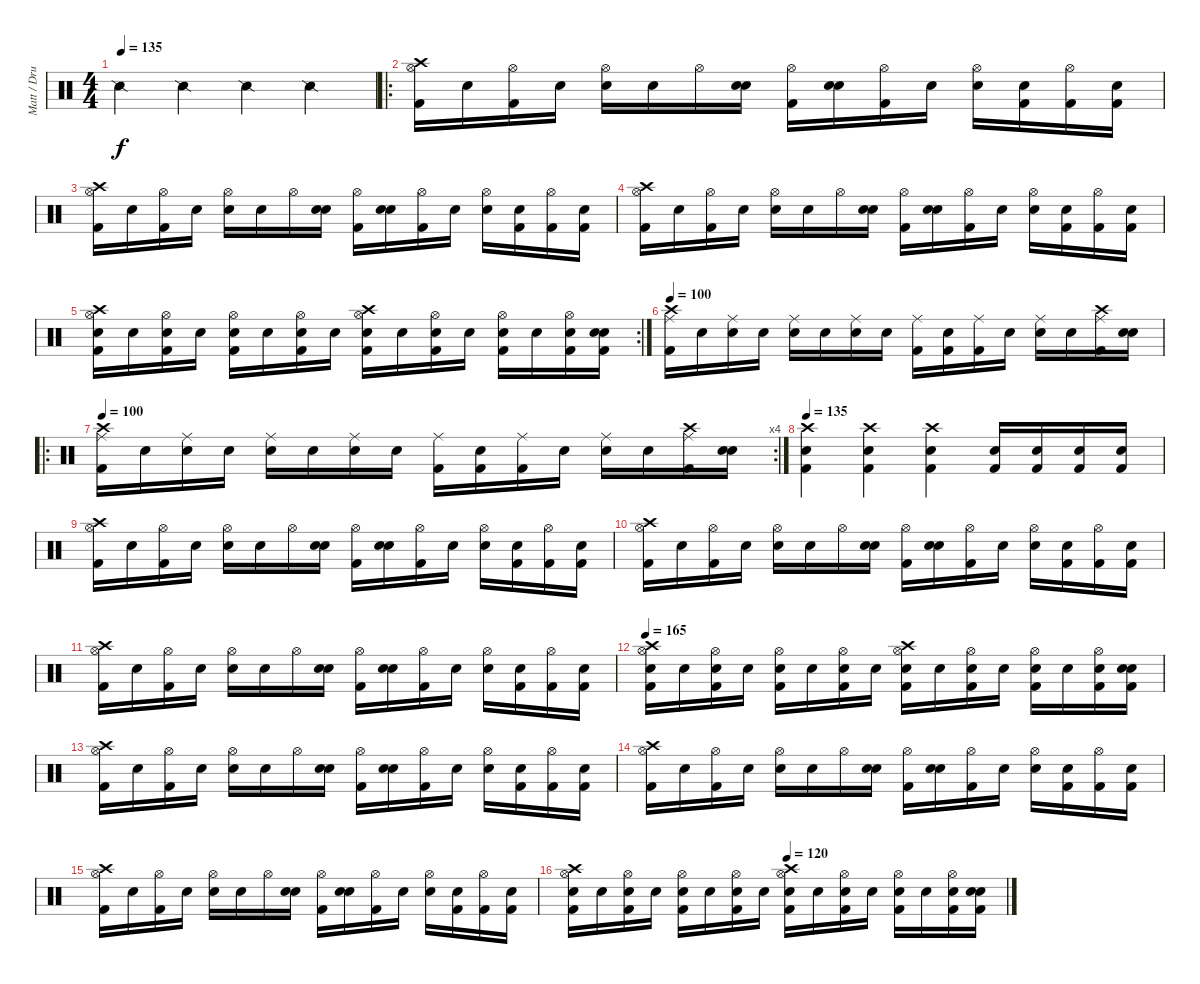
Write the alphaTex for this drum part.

\track ("Matt / Drums" "Matt / Dru") {instrument percussion}
\staff {score}
\articulation defaults
\ts (4 4)
\tempo 135
\clef neutral
\ks c "Snare (side stick) 2".4{dy f} "Snare (side stick) 2".4 "Snare (side stick) 2".4 "Snare (side stick) 2".4
|
\ro
("Crash high (hit)" "Hi-Hat (open)" "Kick (hit) 2").16 "Snare (hit)".16 ("Hi-Hat (open)" "Kick (hit) 2").16 "Snare (hit)".16 ("Hi-Hat (open)" "Snare (hit) 2").16 "Snare (hit)".16 "Hi-Hat (open)".16 ("Snare (hit)" "Snare (hit) 2").16 ("Hi-Hat (open)" "Kick (hit) 2").16 ("Snare (hit)" "Snare (hit) 2").16 ("Hi-Hat (open)" "Kick (hit) 2").16 "Snare (hit)".16 ("Hi-Hat (open)" "Snare (hit) 2").16 ("Snare (hit)" "Kick (hit) 2").16 ("Hi-Hat (open)" "Kick (hit) 2").16 ("Snare (hit)" "Kick (hit) 2").16 |
("Crash high (hit)" "Hi-Hat (open)" "Kick (hit) 2").16 "Snare (hit)".16 ("Hi-Hat (open)" "Kick (hit) 2").16 "Snare (hit)".16 ("Hi-Hat (open)" "Snare (hit) 2").16 "Snare (hit)".16 "Hi-Hat (open)".16 ("Snare (hit)" "Snare (hit) 2").16 ("Hi-Hat (open)" "Kick (hit) 2").16 ("Snare (hit)" "Snare (hit) 2").16 ("Hi-Hat (open)" "Kick (hit) 2").16 "Snare (hit)".16 ("Hi-Hat (open)" "Snare (hit) 2").16 ("Snare (hit)" "Kick (hit) 2").16 ("Hi-Hat (open)" "Kick (hit) 2").16 ("Snare (hit)" "Kick (hit) 2").16 |
("Crash high (hit)" "Hi-Hat (open)" "Kick (hit) 2").16 "Snare (hit)".16 ("Hi-Hat (open)" "Kick (hit) 2").16 "Snare (hit)".16 ("Hi-Hat (open)" "Snare (hit) 2").16 "Snare (hit)".16 "Hi-Hat (open)".16 ("Snare (hit)" "Snare (hit) 2").16 ("Hi-Hat (open)" "Kick (hit) 2").16 ("Snare (hit)" "Snare (hit) 2").16 ("Hi-Hat (open)" "Kick (hit) 2").16 "Snare (hit)".16 ("Hi-Hat (open)" "Snare (hit) 2").16 ("Snare (hit)" "Kick (hit) 2").16 ("Hi-Hat (open)" "Kick (hit) 2").16 ("Snare (hit)" "Kick (hit) 2").16 |
\rc 2
("Crash high (hit)" "Hi-Hat (open)" "Snare (hit) 2" "Kick (hit) 2").16 "Snare (hit)".16 ("Hi-Hat (open)" "Snare (hit) 2" "Kick (hit) 2").16 "Snare (hit)".16 ("Hi-Hat (open)" "Snare (hit) 2" "Kick (hit) 2").16 "Snare (hit)".16 ("Hi-Hat (open)" "Snare (hit) 2" "Kick (hit) 2").16 "Snare (hit)".16 ("Crash high (hit)" "Hi-Hat (open)" "Snare (hit) 2" "Kick (hit) 2").16 "Snare (hit)".16 ("Hi-Hat (open)" "Snare (hit) 2" "Kick (hit) 2").16 "Snare (hit)".16 ("Hi-Hat (open)" "Kick (hit) 2" "Snare (hit) 2").16 "Snare (hit)".16 ("Hi-Hat (open)" "Snare (hit) 2" "Kick (hit) 2").16 ("Snare (hit)" "Snare (hit) 2" "Kick (hit) 2").16 |
\tempo 100
("Crash high (hit)" "Ride (middle)" "Kick (hit) 2").16 "Snare (hit)".16 ("Ride (middle)" "Snare (hit)").16 "Snare (hit)".16 ("Ride (middle)" "Snare (hit) 2").16 "Snare (hit)".16 ("Ride (middle)" "Snare (hit)").16 "Snare (hit)".16 ("Ride (middle)" "Kick (hit) 2").16 ("Snare (hit)" "Kick (hit) 2").16 ("Ride (middle)" "Kick (hit) 2").16 "Snare (hit)".16 ("Ride (middle)" "Snare (hit) 2").16 "Snare (hit)".16 ("Crash high (hit)" "Ride (middle)" "Kick (hit) 2").16 ("Snare (hit)" "Snare (hit) 2").16 |
\ro
\rc 4
\tempo 100
("Crash high (hit)" "Ride (middle)" "Kick (hit) 2").16 "Snare (hit)".16 ("Ride (middle)" "Snare (hit)").16 "Snare (hit)".16 ("Ride (middle)" "Snare (hit) 2").16 "Snare (hit)".16 ("Ride (middle)" "Snare (hit)").16 "Snare (hit)".16 ("Ride (middle)" "Kick (hit) 2").16 ("Snare (hit)" "Kick (hit) 2").16 ("Ride (middle)" "Kick (hit) 2").16 "Snare (hit)".16 ("Ride (middle)" "Snare (hit) 2").16 "Snare (hit)".16 ("Crash high (hit)" "Ride (middle)" "Kick (hit) 2").16 ("Snare (hit)" "Snare (hit) 2").16 |
\tempo 135
("Crash high (hit)" "Snare (hit) 2" "Kick (hit) 2").4 ("Crash high (hit)" "Snare (hit) 2" "Kick (hit) 2").4 ("Crash high (hit)" "Snare (hit) 2" "Kick (hit) 2").4 ("Kick (hit) 2" "Snare (hit) 2").16 ("Kick (hit) 2" "Snare (hit) 2").16 ("Kick (hit) 2" "Snare (hit) 2").16 ("Kick (hit) 2" "Snare (hit) 2").16 |
("Crash high (hit)" "Hi-Hat (open)" "Kick (hit) 2").16 "Snare (hit)".16 ("Hi-Hat (open)" "Kick (hit) 2").16 "Snare (hit)".16 ("Hi-Hat (open)" "Snare (hit) 2").16 "Snare (hit)".16 "Hi-Hat (open)".16 ("Snare (hit)" "Snare (hit) 2").16 ("Hi-Hat (open)" "Kick (hit) 2").16 ("Snare (hit)" "Snare (hit) 2").16 ("Hi-Hat (open)" "Kick (hit) 2").16 "Snare (hit)".16 ("Hi-Hat (open)" "Snare (hit) 2").16 ("Snare (hit)" "Kick (hit) 2").16 ("Hi-Hat (open)" "Kick (hit) 2").16 ("Snare (hit)" "Kick (hit) 2").16 |
("Crash high (hit)" "Hi-Hat (open)" "Kick (hit) 2").16 "Snare (hit)".16 ("Hi-Hat (open)" "Kick (hit) 2").16 "Snare (hit)".16 ("Hi-Hat (open)" "Snare (hit) 2").16 "Snare (hit)".16 "Hi-Hat (open)".16 ("Snare (hit)" "Snare (hit) 2").16 ("Hi-Hat (open)" "Kick (hit) 2").16 ("Snare (hit)" "Snare (hit) 2").16 ("Hi-Hat (open)" "Kick (hit) 2").16 "Snare (hit)".16 ("Hi-Hat (open)" "Snare (hit) 2").16 ("Snare (hit)" "Kick (hit) 2").16 ("Hi-Hat (open)" "Kick (hit) 2").16 ("Snare (hit)" "Kick (hit) 2").16 |
("Crash high (hit)" "Hi-Hat (open)" "Kick (hit) 2").16 "Snare (hit)".16 ("Hi-Hat (open)" "Kick (hit) 2").16 "Snare (hit)".16 ("Hi-Hat (open)" "Snare (hit) 2").16 "Snare (hit)".16 "Hi-Hat (open)".16 ("Snare (hit)" "Snare (hit) 2").16 ("Hi-Hat (open)" "Kick (hit) 2").16 ("Snare (hit)" "Snare (hit) 2").16 ("Hi-Hat (open)" "Kick (hit) 2").16 "Snare (hit)".16 ("Hi-Hat (open)" "Snare (hit) 2").16 ("Snare (hit)" "Kick (hit) 2").16 ("Hi-Hat (open)" "Kick (hit) 2").16 ("Snare (hit)" "Kick (hit) 2").16 |
\tempo 165
("Crash high (hit)" "Hi-Hat (open)" "Snare (hit) 2" "Kick (hit) 2").16 "Snare (hit)".16 ("Hi-Hat (open)" "Snare (hit) 2" "Kick (hit) 2").16 "Snare (hit)".16 ("Hi-Hat (open)" "Snare (hit) 2" "Kick (hit) 2").16 "Snare (hit)".16 ("Hi-Hat (open)" "Snare (hit) 2" "Kick (hit) 2").16 "Snare (hit)".16 ("Crash high (hit)" "Hi-Hat (open)" "Snare (hit) 2" "Kick (hit) 2").16 "Snare (hit)".16 ("Hi-Hat (open)" "Snare (hit) 2" "Kick (hit) 2").16 "Snare (hit)".16 ("Hi-Hat (open)" "Kick (hit) 2" "Snare (hit) 2").16 "Snare (hit)".16 ("Hi-Hat (open)" "Snare (hit) 2" "Kick (hit) 2").16 ("Snare (hit)" "Snare (hit) 2" "Kick (hit) 2").16 |
("Crash high (hit)" "Hi-Hat (open)" "Kick (hit) 2").16 "Snare (hit)".16 ("Hi-Hat (open)" "Kick (hit) 2").16 "Snare (hit)".16 ("Hi-Hat (open)" "Snare (hit) 2").16 "Snare (hit)".16 "Hi-Hat (open)".16 ("Snare (hit)" "Snare (hit) 2").16 ("Hi-Hat (open)" "Kick (hit) 2").16 ("Snare (hit)" "Snare (hit) 2").16 ("Hi-Hat (open)" "Kick (hit) 2").16 "Snare (hit)".16 ("Hi-Hat (open)" "Snare (hit) 2").16 ("Snare (hit)" "Kick (hit) 2").16 ("Hi-Hat (open)" "Kick (hit) 2").16 ("Snare (hit)" "Kick (hit) 2").16 |
("Crash high (hit)" "Hi-Hat (open)" "Kick (hit) 2").16 "Snare (hit)".16 ("Hi-Hat (open)" "Kick (hit) 2").16 "Snare (hit)".16 ("Hi-Hat (open)" "Snare (hit) 2").16 "Snare (hit)".16 "Hi-Hat (open)".16 ("Snare (hit)" "Snare (hit) 2").16 ("Hi-Hat (open)" "Kick (hit) 2").16 ("Snare (hit)" "Snare (hit) 2").16 ("Hi-Hat (open)" "Kick (hit) 2").16 "Snare (hit)".16 ("Hi-Hat (open)" "Snare (hit) 2").16 ("Snare (hit)" "Kick (hit) 2").16 ("Hi-Hat (open)" "Kick (hit) 2").16 ("Snare (hit)" "Kick (hit) 2").16 |
("Crash high (hit)" "Hi-Hat (open)" "Kick (hit) 2").16 "Snare (hit)".16 ("Hi-Hat (open)" "Kick (hit) 2").16 "Snare (hit)".16 ("Hi-Hat (open)" "Snare (hit) 2").16 "Snare (hit)".16 "Hi-Hat (open)".16 ("Snare (hit)" "Snare (hit) 2").16 ("Hi-Hat (open)" "Kick (hit) 2").16 ("Snare (hit)" "Snare (hit) 2").16 ("Hi-Hat (open)" "Kick (hit) 2").16 "Snare (hit)".16 ("Hi-Hat (open)" "Snare (hit) 2").16 ("Snare (hit)" "Kick (hit) 2").16 ("Hi-Hat (open)" "Kick (hit) 2").16 ("Snare (hit)" "Kick (hit) 2").16 |
\tempo (120 0.5)
("Crash high (hit)" "Hi-Hat (open)" "Snare (hit) 2" "Kick (hit) 2").16 "Snare (hit)".16 ("Hi-Hat (open)" "Snare (hit) 2" "Kick (hit) 2").16 "Snare (hit)".16 ("Hi-Hat (open)" "Snare (hit) 2" "Kick (hit) 2").16 "Snare (hit)".16 ("Hi-Hat (open)" "Snare (hit) 2" "Kick (hit) 2").16 "Snare (hit)".16 ("Crash high (hit)" "Hi-Hat (open)" "Snare (hit) 2" "Kick (hit) 2").16 "Snare (hit)".16 ("Hi-Hat (open)" "Snare (hit) 2" "Kick (hit) 2").16 "Snare (hit)".16 ("Hi-Hat (open)" "Kick (hit) 2" "Snare (hit) 2").16 "Snare (hit)".16 ("Hi-Hat (open)" "Snare (hit) 2" "Kick (hit) 2").16 ("Snare (hit)" "Snare (hit) 2" "Kick (hit) 2").16
